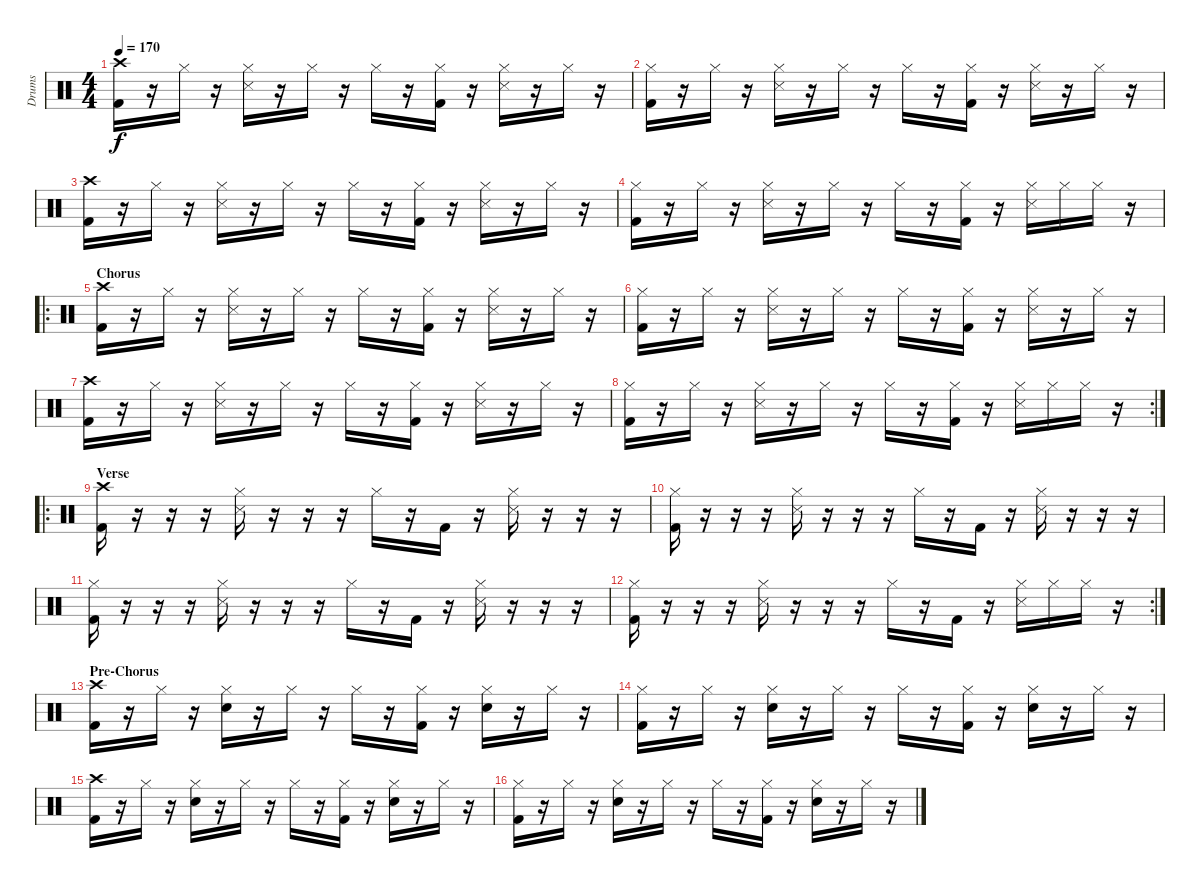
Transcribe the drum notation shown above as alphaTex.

\track ("Drums" "Drums") {instrument percussion}
\staff {score}
\articulation defaults
\ts (4 4)
\tempo 170
\clef neutral
\ks c
("Kick (hit) 2" "Crash high (hit)").16{dy f} r.16 "Hi-Hat (closed)".16 r.16 ("Hi-Hat (closed)" "Snare (side stick) 3").16 r.16 "Hi-Hat (closed)".16 r.16 "Hi-Hat (closed)".16 r.16 ("Hi-Hat (closed)" "Kick (hit) 2").16 r.16 ("Hi-Hat (closed)" "Snare (side stick) 3").16 r.16 "Hi-Hat (closed)".16 r.16 |
("Kick (hit) 2" "Hi-Hat (closed)").16 r.16 "Hi-Hat (closed)".16 r.16 ("Hi-Hat (closed)" "Snare (side stick) 3").16 r.16 "Hi-Hat (closed)".16 r.16 "Hi-Hat (closed)".16 r.16 ("Hi-Hat (closed)" "Kick (hit) 2").16 r.16 ("Hi-Hat (closed)" "Snare (side stick) 3").16 r.16 "Hi-Hat (closed)".16 r.16 |
("Kick (hit) 2" "Crash high (hit)").16 r.16 "Hi-Hat (closed)".16 r.16 ("Hi-Hat (closed)" "Snare (side stick) 3").16 r.16 "Hi-Hat (closed)".16 r.16 "Hi-Hat (closed)".16 r.16 ("Hi-Hat (closed)" "Kick (hit) 2").16 r.16 ("Hi-Hat (closed)" "Snare (side stick) 3").16 r.16 "Hi-Hat (closed)".16 r.16 |
("Kick (hit) 2" "Hi-Hat (closed)").16 r.16 "Hi-Hat (closed)".16 r.16 ("Hi-Hat (closed)" "Snare (side stick) 3").16 r.16 "Hi-Hat (closed)".16 r.16 "Hi-Hat (closed)".16 r.16 ("Hi-Hat (closed)" "Kick (hit) 2").16 r.16 ("Hi-Hat (closed)" "Snare (side stick) 3").16 "Hi-Hat (closed)".16 "Hi-Hat (closed)".16 r.16 |
\ro
\section ("" "Chorus")
("Kick (hit) 2" "Crash high (hit)").16 r.16 "Hi-Hat (closed)".16 r.16 ("Hi-Hat (closed)" "Snare (side stick) 3").16 r.16 "Hi-Hat (closed)".16 r.16 "Hi-Hat (closed)".16 r.16 ("Hi-Hat (closed)" "Kick (hit) 2").16 r.16 ("Hi-Hat (closed)" "Snare (side stick) 3").16 r.16 "Hi-Hat (closed)".16 r.16 |
("Kick (hit) 2" "Hi-Hat (closed)").16 r.16 "Hi-Hat (closed)".16 r.16 ("Hi-Hat (closed)" "Snare (side stick) 3").16 r.16 "Hi-Hat (closed)".16 r.16 "Hi-Hat (closed)".16 r.16 ("Hi-Hat (closed)" "Kick (hit) 2").16 r.16 ("Hi-Hat (closed)" "Snare (side stick) 3").16 r.16 "Hi-Hat (closed)".16 r.16 |
("Kick (hit) 2" "Crash high (hit)").16 r.16 "Hi-Hat (closed)".16 r.16 ("Hi-Hat (closed)" "Snare (side stick) 3").16 r.16 "Hi-Hat (closed)".16 r.16 "Hi-Hat (closed)".16 r.16 ("Hi-Hat (closed)" "Kick (hit) 2").16 r.16 ("Hi-Hat (closed)" "Snare (side stick) 3").16 r.16 "Hi-Hat (closed)".16 r.16 |
\rc 2
("Kick (hit) 2" "Hi-Hat (closed)").16 r.16 "Hi-Hat (closed)".16 r.16 ("Hi-Hat (closed)" "Snare (side stick) 3").16 r.16 "Hi-Hat (closed)".16 r.16 "Hi-Hat (closed)".16 r.16 ("Hi-Hat (closed)" "Kick (hit) 2").16 r.16 ("Hi-Hat (closed)" "Snare (side stick) 3").16 "Hi-Hat (closed)".16 "Hi-Hat (closed)".16 r.16 |
\ro
\section ("" "Verse")
("Kick (hit) 2" "Crash high (hit)").16 r.16 r.16 r.16 ("Hi-Hat (closed)" "Snare (side stick) 3").16 r.16 r.16 r.16 "Hi-Hat (closed)".16 r.16 "Kick (hit) 2".16 r.16 ("Hi-Hat (closed)" "Snare (side stick) 3").16 r.16 r.16 r.16 |
("Kick (hit) 2" "Hi-Hat (closed)").16 r.16 r.16 r.16 ("Hi-Hat (closed)" "Snare (side stick) 3").16 r.16 r.16 r.16 "Hi-Hat (closed)".16 r.16 "Kick (hit) 2".16 r.16 ("Hi-Hat (closed)" "Snare (side stick) 3").16 r.16 r.16 r.16 |
("Kick (hit) 2" "Hi-Hat (closed)").16 r.16 r.16 r.16 ("Hi-Hat (closed)" "Snare (side stick) 3").16 r.16 r.16 r.16 "Hi-Hat (closed)".16 r.16 "Kick (hit) 2".16 r.16 ("Hi-Hat (closed)" "Snare (side stick) 3").16 r.16 r.16 r.16 |
\rc 2
("Kick (hit) 2" "Hi-Hat (closed)").16 r.16 r.16 r.16 ("Hi-Hat (closed)" "Snare (side stick) 3").16 r.16 r.16 r.16 "Hi-Hat (closed)".16 r.16 "Kick (hit) 2".16 r.16 ("Hi-Hat (closed)" "Snare (side stick) 3").16 "Hi-Hat (closed)".16 "Hi-Hat (closed)".16 r.16 |
\section ("" "Pre-Chorus")
("Kick (hit) 2" "Crash high (hit)").16 r.16 "Hi-Hat (closed)".16 r.16 ("Hi-Hat (closed)" "Snare (hit) 2").16 r.16 "Hi-Hat (closed)".16 r.16 "Hi-Hat (closed)".16 r.16 ("Hi-Hat (closed)" "Kick (hit) 2").16 r.16 ("Hi-Hat (closed)" "Snare (hit) 2").16 r.16 "Hi-Hat (closed)".16 r.16 |
("Kick (hit) 2" "Hi-Hat (closed)").16 r.16 "Hi-Hat (closed)".16 r.16 ("Hi-Hat (closed)" "Snare (hit) 2").16 r.16 "Hi-Hat (closed)".16 r.16 "Hi-Hat (closed)".16 r.16 ("Hi-Hat (closed)" "Kick (hit) 2").16 r.16 ("Hi-Hat (closed)" "Snare (hit) 2").16 r.16 "Hi-Hat (closed)".16 r.16 |
("Kick (hit) 2" "Crash high (hit)").16 r.16 "Hi-Hat (closed)".16 r.16 ("Hi-Hat (closed)" "Snare (hit) 2").16 r.16 "Hi-Hat (closed)".16 r.16 "Hi-Hat (closed)".16 r.16 ("Hi-Hat (closed)" "Kick (hit) 2").16 r.16 ("Hi-Hat (closed)" "Snare (hit) 2").16 r.16 "Hi-Hat (closed)".16 r.16 |
("Kick (hit) 2" "Hi-Hat (closed)").16 r.16 "Hi-Hat (closed)".16 r.16 ("Hi-Hat (closed)" "Snare (hit) 2").16 r.16 "Hi-Hat (closed)".16 r.16 "Hi-Hat (closed)".16 r.16 ("Hi-Hat (closed)" "Kick (hit) 2").16 r.16 ("Hi-Hat (closed)" "Snare (hit) 2").16 r.16 "Hi-Hat (closed)".16 r.16
